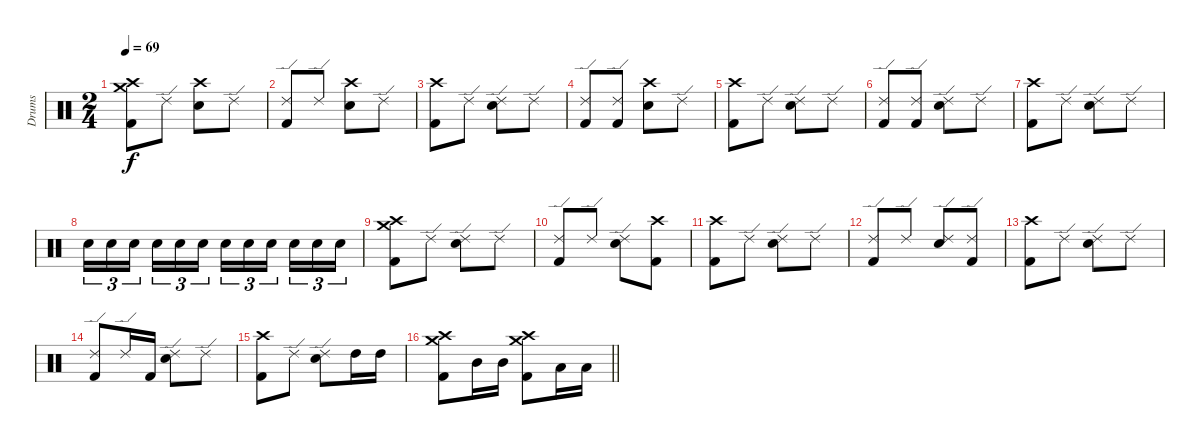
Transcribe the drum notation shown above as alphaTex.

\track ("Drums" "Drums") {instrument percussion}
\staff {score}
\articulation defaults
\ts (2 4)
\tempo 69
\clef neutral
\ks c
("Kick (hit) 2" "Crash high (hit)" "Crash medium (hit)").8{dy f} "Ride (edge) 2".8 ("Electric Snare (hit)" "Crash high (hit)").8 "Ride (edge) 2".8 |
("Kick (hit) 2" "Ride (edge) 2").8 "Ride (edge) 2".8 ("Electric Snare (hit)" "Crash high (hit)").8 "Ride (edge) 2".8 |
("Kick (hit) 2" "Crash high (hit)").8 "Ride (edge) 2".8 ("Electric Snare (hit)" "Ride (edge) 2").8 "Ride (edge) 2".8 |
("Kick (hit) 2" "Ride (edge) 2").8 ("Kick (hit) 2" "Ride (edge) 2").8 ("Electric Snare (hit)" "Crash high (hit)").8 "Ride (edge) 2".8 |
("Kick (hit) 2" "Crash high (hit)").8 "Ride (edge) 2".8 ("Electric Snare (hit)" "Ride (edge) 2").8 "Ride (edge) 2".8 |
("Kick (hit) 2" "Ride (edge) 2").8 ("Kick (hit) 2" "Ride (edge) 2").8 ("Electric Snare (hit)" "Ride (edge) 2").8 "Ride (edge) 2".8 |
("Kick (hit) 2" "Crash high (hit)").8 "Ride (edge) 2".8 ("Electric Snare (hit)" "Ride (edge) 2").8 "Ride (edge) 2".8 |
"Electric Snare (hit)".16{tu (3 2)} "Electric Snare (hit)".16{tu (3 2)} "Electric Snare (hit)".16{tu (3 2) beam splitsecondary} "Electric Snare (hit)".16{tu (3 2)} "Electric Snare (hit)".16{tu (3 2)} "Electric Snare (hit)".16{tu (3 2)} "Electric Snare (hit)".16{tu (3 2)} "Electric Snare (hit)".16{tu (3 2)} "Electric Snare (hit)".16{tu (3 2) beam splitsecondary} "Electric Snare (hit)".16{tu (3 2)} "Electric Snare (hit)".16{tu (3 2)} "Electric Snare (hit)".16{tu (3 2)} |
("Kick (hit) 2" "Crash high (hit)" "Crash medium (hit)").8 "Ride (edge) 2".8 ("Electric Snare (hit)" "Ride (edge) 2").8 "Ride (edge) 2".8 |
("Kick (hit) 2" "Ride (edge) 2").8 "Ride (edge) 2".8 ("Electric Snare (hit)" "Ride (edge) 2").8 ("Kick (hit) 2" "Crash high (hit)").8 |
("Kick (hit) 2" "Crash high (hit)").8 "Ride (edge) 2".8 ("Electric Snare (hit)" "Ride (edge) 2").8 "Ride (edge) 2".8 |
("Kick (hit) 2" "Ride (edge) 2").8 "Ride (edge) 2".8 ("Electric Snare (hit)" "Ride (edge) 2").8 ("Kick (hit) 2" "Ride (edge) 2").8 |
("Kick (hit) 2" "Crash high (hit)").8 "Ride (edge) 2".8 ("Electric Snare (hit)" "Ride (edge) 2").8 "Ride (edge) 2".8 |
("Kick (hit) 2" "Ride (edge) 2").8 "Ride (edge) 2".16 "Kick (hit) 2".16 ("Electric Snare (hit)" "Ride (edge) 2").8 "Ride (edge) 2".8 |
("Kick (hit) 2" "Crash high (hit)").8 "Ride (edge) 2".8 ("Electric Snare (hit)" "Ride (edge) 2").8 "High Tom (hit)".16 "High Tom (hit)".16 |
\barLineRight lightlight
("Kick (hit) 2" "Crash high (hit)" "Crash medium (hit)").8 "Mid Tom (hit)".16 "Mid Tom (hit)".16 ("Kick (hit) 2" "Crash high (hit)" "Crash medium (hit)").8 "Low Tom (hit)".16 "Low Tom (hit)".16
